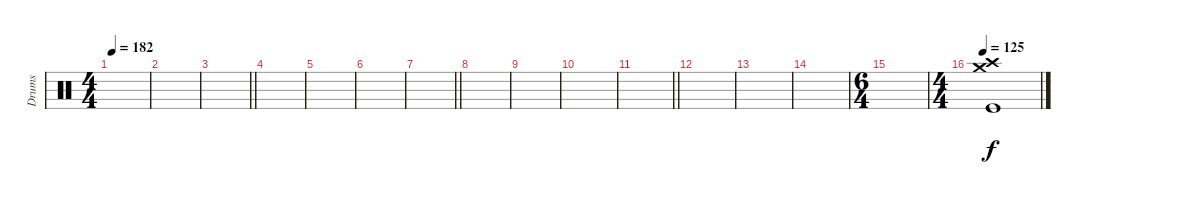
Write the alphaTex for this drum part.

\track ("Drums" "Drums") {instrument percussion}
\staff
\articulation defaults
\ts (4 4)
\tempo 182
\clef neutral
\ks c
|
|
\barLineRight lightlight
|
|
|
|
\barLineRight lightlight
|
|
|
|
\barLineRight lightlight
|
|
|
|
\ts (6 4)
|
\ts (4 4)
\tempo 125
("Crash high (hit)" "Crash medium (hit)" "Kick (hit)").1
